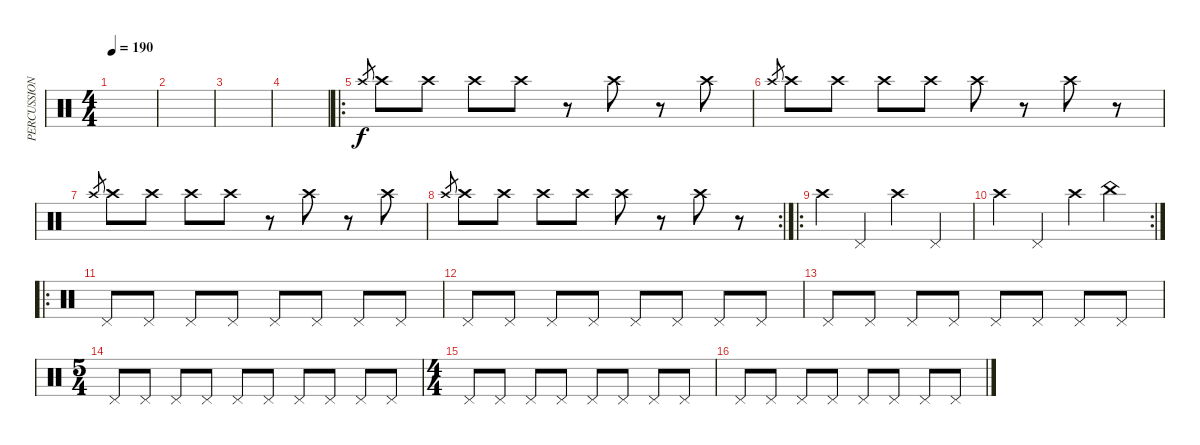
\track ("PERCUSSION" "PERCUSSION") {instrument percussion}
\staff {score}
\articulation defaults
\ts (4 4)
\tempo 190
\clef neutral
\ks c
|
|
|
|
\ro "Crash high (hit)".8{gr} "Crash high (hit)".8 "Crash high (hit)".8 "Crash high (hit)".8 "Crash high (hit)".8
r.8 "Crash high (hit)".8 r.8 "Crash high (hit)".8 |
"Crash high (hit)".8{gr} "Crash high (hit)".8 "Crash high (hit)".8 "Crash high (hit)".8 "Crash high (hit)".8 "Crash high (hit)".8 r.8 "Crash high (hit)".8 r.8 |
"Crash high (hit)".8{gr} "Crash high (hit)".8 "Crash high (hit)".8 "Crash high (hit)".8 "Crash high (hit)".8 r.8 "Crash high (hit)".8 r.8 "Crash high (hit)".8 |
\rc 2 "Crash high (hit)".8{gr} "Crash high (hit)".8 "Crash high (hit)".8 "Crash high (hit)".8 "Crash high (hit)".8 "Crash high (hit)".8
r.8 "Crash high (hit)".8 r.8 |
\ro "Crash high (hit)".4 "Pedal Hi-Hat (hit)".4 "Crash high (hit)".4 "Pedal Hi-Hat (hit)".4
|
\rc 2 "Crash high (hit)".4 "Pedal Hi-Hat (hit)".4 "Crash high (hit)".4 "China (hit)".4
|
\ro "Pedal Hi-Hat (hit)".8 "Pedal Hi-Hat (hit)".8 "Pedal Hi-Hat (hit)".8 "Pedal Hi-Hat (hit)".8 "Pedal Hi-Hat (hit)".8 "Pedal Hi-Hat (hit)".8 "Pedal Hi-Hat (hit)".8 "Pedal Hi-Hat (hit)".8
|
"Pedal Hi-Hat (hit)".8 "Pedal Hi-Hat (hit)".8 "Pedal Hi-Hat (hit)".8 "Pedal Hi-Hat (hit)".8 "Pedal Hi-Hat (hit)".8 "Pedal Hi-Hat (hit)".8 "Pedal Hi-Hat (hit)".8 "Pedal Hi-Hat (hit)".8 |
"Pedal Hi-Hat (hit)".8 "Pedal Hi-Hat (hit)".8 "Pedal Hi-Hat (hit)".8 "Pedal Hi-Hat (hit)".8 "Pedal Hi-Hat (hit)".8 "Pedal Hi-Hat (hit)".8 "Pedal Hi-Hat (hit)".8 "Pedal Hi-Hat (hit)".8 |
\ts (5 4)
"Pedal Hi-Hat (hit)".8 "Pedal Hi-Hat (hit)".8 "Pedal Hi-Hat (hit)".8 "Pedal Hi-Hat (hit)".8 "Pedal Hi-Hat (hit)".8 "Pedal Hi-Hat (hit)".8 "Pedal Hi-Hat (hit)".8 "Pedal Hi-Hat (hit)".8 "Pedal Hi-Hat (hit)".8 "Pedal Hi-Hat (hit)".8 |
\ts (4 4)
"Pedal Hi-Hat (hit)".8 "Pedal Hi-Hat (hit)".8 "Pedal Hi-Hat (hit)".8 "Pedal Hi-Hat (hit)".8 "Pedal Hi-Hat (hit)".8 "Pedal Hi-Hat (hit)".8 "Pedal Hi-Hat (hit)".8 "Pedal Hi-Hat (hit)".8 |
"Pedal Hi-Hat (hit)".8 "Pedal Hi-Hat (hit)".8 "Pedal Hi-Hat (hit)".8 "Pedal Hi-Hat (hit)".8 "Pedal Hi-Hat (hit)".8 "Pedal Hi-Hat (hit)".8 "Pedal Hi-Hat (hit)".8 "Pedal Hi-Hat (hit)".8
